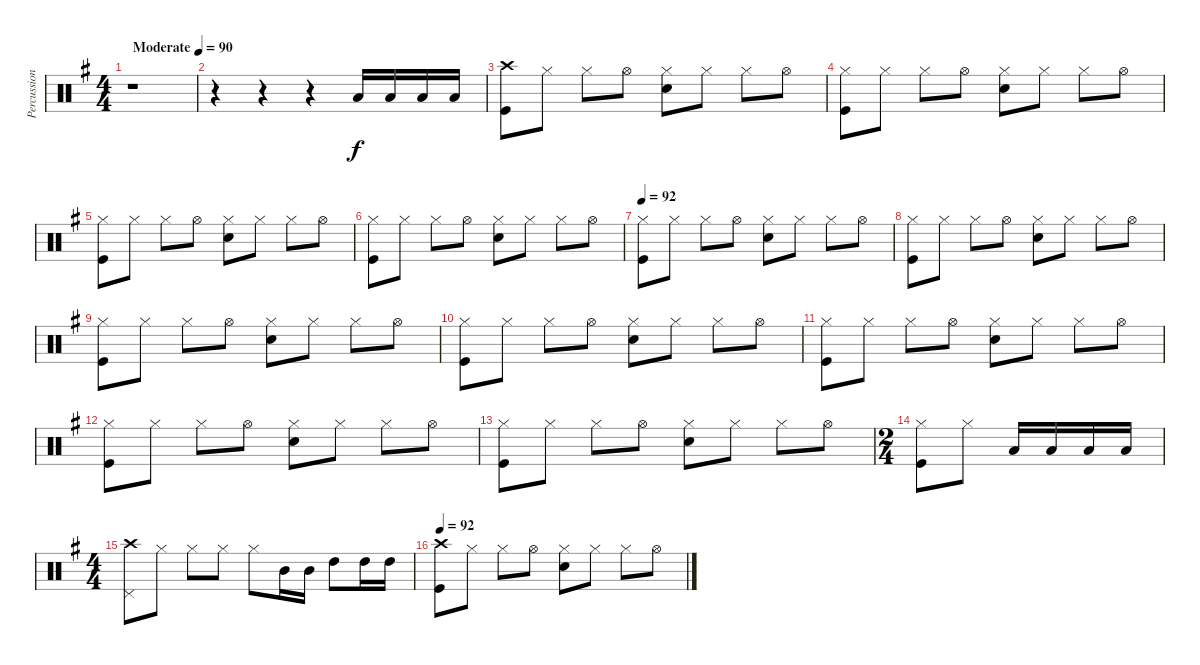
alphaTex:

\track ("Percussions" "Percussion") {instrument percussion}
\staff {score}
\articulation defaults
\ts (4 4)
\tempo (90 "Moderate")
\clef neutral
\ks g
r.1{dy f} |
r.4 r.4 r.4 "Low Tom (hit)".16{volume 16} "Low Tom (hit)".16{volume 16} "Low Tom (hit)".16{volume 16} "Low Tom (hit)".16{volume 16} |
("Kick (hit)" "Crash high (hit)").8{volume 16} "Hi-Hat (closed)".8{volume 10} "Hi-Hat (closed)".8 "Hi-Hat (open)".8 ("Hi-Hat (closed)" "Snare (hit) 2").8 "Hi-Hat (closed)".8 "Hi-Hat (closed)".8 "Hi-Hat (open)".8 |
("Kick (hit)" "Hi-Hat (closed)").8 "Hi-Hat (closed)".8 "Hi-Hat (closed)".8 "Hi-Hat (open)".8 ("Hi-Hat (closed)" "Snare (hit) 2").8 "Hi-Hat (closed)".8 "Hi-Hat (closed)".8 "Hi-Hat (open)".8 |
("Kick (hit)" "Hi-Hat (closed)").8 "Hi-Hat (closed)".8 "Hi-Hat (closed)".8 "Hi-Hat (open)".8 ("Hi-Hat (closed)" "Snare (hit) 2").8 "Hi-Hat (closed)".8 "Hi-Hat (closed)".8 "Hi-Hat (open)".8 |
("Kick (hit)" "Hi-Hat (closed)").8 "Hi-Hat (closed)".8 "Hi-Hat (closed)".8 "Hi-Hat (open)".8 ("Hi-Hat (closed)" "Snare (hit) 2").8 "Hi-Hat (closed)".8 "Hi-Hat (closed)".8 "Hi-Hat (open)".8 |
\tempo 92
("Kick (hit)" "Hi-Hat (closed)").8 "Hi-Hat (closed)".8 "Hi-Hat (closed)".8 "Hi-Hat (open)".8 ("Hi-Hat (closed)" "Snare (hit) 2").8 "Hi-Hat (closed)".8 "Hi-Hat (closed)".8 "Hi-Hat (open)".8 |
("Kick (hit)" "Hi-Hat (closed)").8 "Hi-Hat (closed)".8 "Hi-Hat (closed)".8 "Hi-Hat (open)".8 ("Hi-Hat (closed)" "Snare (hit) 2").8 "Hi-Hat (closed)".8 "Hi-Hat (closed)".8 "Hi-Hat (open)".8 |
("Kick (hit)" "Hi-Hat (closed)").8 "Hi-Hat (closed)".8 "Hi-Hat (closed)".8 "Hi-Hat (open)".8 ("Hi-Hat (closed)" "Snare (hit) 2").8 "Hi-Hat (closed)".8 "Hi-Hat (closed)".8 "Hi-Hat (open)".8 |
("Kick (hit)" "Hi-Hat (closed)").8 "Hi-Hat (closed)".8 "Hi-Hat (closed)".8 "Hi-Hat (open)".8 ("Hi-Hat (closed)" "Snare (hit) 2").8 "Hi-Hat (closed)".8 "Hi-Hat (closed)".8 "Hi-Hat (open)".8 |
("Kick (hit)" "Hi-Hat (closed)").8 "Hi-Hat (closed)".8 "Hi-Hat (closed)".8 "Hi-Hat (open)".8 ("Hi-Hat (closed)" "Snare (hit) 2").8 "Hi-Hat (closed)".8 "Hi-Hat (closed)".8 "Hi-Hat (open)".8 |
("Kick (hit)" "Hi-Hat (closed)").8 "Hi-Hat (closed)".8 "Hi-Hat (closed)".8 "Hi-Hat (open)".8 ("Hi-Hat (closed)" "Snare (hit) 2").8 "Hi-Hat (closed)".8 "Hi-Hat (closed)".8 "Hi-Hat (open)".8 |
("Kick (hit)" "Hi-Hat (closed)").8 "Hi-Hat (closed)".8 "Hi-Hat (closed)".8 "Hi-Hat (open)".8 ("Hi-Hat (closed)" "Snare (hit) 2").8 "Hi-Hat (closed)".8 "Hi-Hat (closed)".8 "Hi-Hat (open)".8 |
\ts (2 4)
("Hi-Hat (closed)" "Kick (hit)").8 "Hi-Hat (closed)".8 "Low Tom (hit)".16{volume 16} "Low Tom (hit)".16{volume 16} "Low Tom (hit)".16{volume 16} "Low Tom (hit)".16{volume 16} |
\ts (4 4)
("Pedal Hi-Hat (hit)" "Crash high (hit)").8{volume 16} "Hi-Hat (closed)".8{volume 12} "Hi-Hat (closed)".8 "Hi-Hat (closed)".8 "Hi-Hat (closed)".8 "Mid Tom (hit)".16{volume 16} "Mid Tom (hit)".16{volume 16} "High Tom (hit)".8{volume 16} "High Tom (hit)".16{volume 16} "High Tom (hit)".16{volume 16} |
\tempo 92
("Kick (hit)" "Crash high (hit)").8{volume 16} "Hi-Hat (closed)".8{volume 12} "Hi-Hat (closed)".8 "Hi-Hat (open)".8 ("Hi-Hat (closed)" "Snare (hit) 2").8 "Hi-Hat (closed)".8 "Hi-Hat (closed)".8 "Hi-Hat (open)".8
